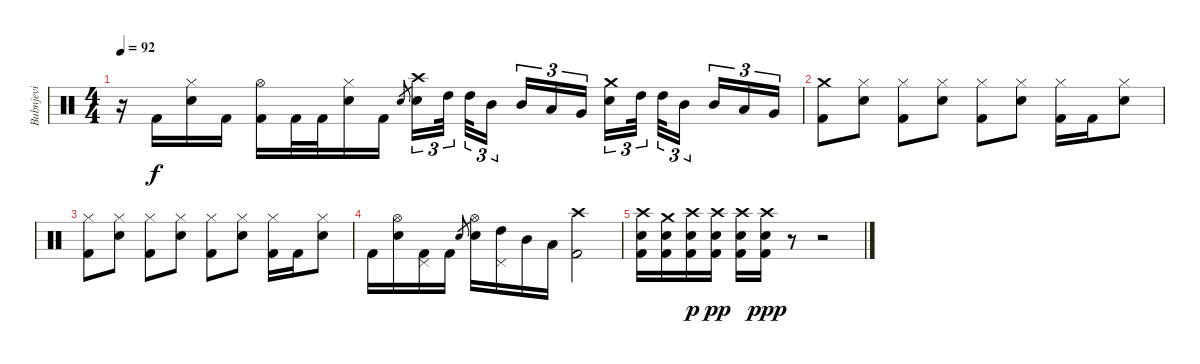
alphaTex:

\track ("Bubnjevi" "Bubnjevi") {instrument percussion}
\staff {score}
\articulation defaults
\ts (4 4)
\tempo 92
\clef neutral
\ks c
r.16{dy f} "Kick (hit) 2".16 ("Hi-Hat (closed)" "Electric Snare (hit)").16 "Kick (hit) 2".16 ("Hi-Hat (open)" "Kick (hit) 2").16 "Kick (hit) 2".32 "Kick (hit) 2".32 ("Hi-Hat (closed)" "Electric Snare (hit)").16 "Kick (hit) 2".16 "Electric Snare (hit)".8{gr} ("Crash high (hit)" "Electric Snare (hit)").16{tu (3 2)} "High Tom (hit)".32{tu (3 2)} "High Tom (hit)".32{tu (3 2)} "Mid Tom (hit)".16{tu (3 2)} "Mid Tom (hit)".16{tu (3 2)} "Low Tom (hit)".16{tu (3 2)} "Very Low Tom (hit)".16{tu (3 2)} ("Crash medium (hit)" "Electric Snare (hit)").16{tu (3 2)} "High Tom (hit)".32{tu (3 2)} "High Tom (hit)".32{tu (3 2)} "Mid Tom (hit)".16{tu (3 2)} "Mid Tom (hit)".16{tu (3 2)} "Low Tom (hit)".16{tu (3 2)} "Very Low Tom (hit)".16{tu (3 2)} |
("Crash medium (hit)" "Kick (hit) 2").8 ("Hi-Hat (closed)" "Electric Snare (hit)").8 ("Hi-Hat (closed)" "Kick (hit) 2").8 ("Hi-Hat (closed)" "Electric Snare (hit)").8 ("Hi-Hat (closed)" "Kick (hit) 2").8 ("Hi-Hat (closed)" "Electric Snare (hit)").8 ("Hi-Hat (closed)" "Kick (hit) 2").16 "Kick (hit) 2".16 ("Hi-Hat (closed)" "Electric Snare (hit)").8 |
("Hi-Hat (closed)" "Kick (hit) 2").8 ("Hi-Hat (closed)" "Electric Snare (hit)").8 ("Hi-Hat (closed)" "Kick (hit) 2").8 ("Hi-Hat (closed)" "Electric Snare (hit)").8 ("Hi-Hat (closed)" "Kick (hit) 2").8 ("Hi-Hat (closed)" "Electric Snare (hit)").8 ("Hi-Hat (closed)" "Kick (hit) 2").16 "Kick (hit) 2".16 ("Hi-Hat (closed)" "Electric Snare (hit)").8 |
"Kick (hit) 2".16 ("Hi-Hat (open)" "Electric Snare (hit)").16 ("Pedal Hi-Hat (hit)" "Kick (hit) 2").16 "Kick (hit) 2".16 "Electric Snare (hit)".8{gr} ("Hi-Hat (open)" "Electric Snare (hit)").16 ("Pedal Hi-Hat (hit)" "High Tom (hit)").16 "Mid Tom (hit)".16 "Low Tom (hit)".16 ("Crash high (hit)" "Kick (hit) 2").2 |
("Crash high (hit)" "Electric Snare (hit)" "Kick (hit) 2").16 ("Crash medium (hit)" "Electric Snare (hit)" "Kick (hit) 2").16 ("Crash high (hit)" "Electric Snare (hit)" "Kick (hit) 2").16{dy p} ("Crash high (hit)" "Electric Snare (hit)" "Kick (hit) 2").16{dy pp} ("Crash high (hit)" "Electric Snare (hit)" "Kick (hit) 2").16 ("Crash high (hit)" "Electric Snare (hit)" "Kick (hit) 2").16{dy ppp} r.8 r.2
